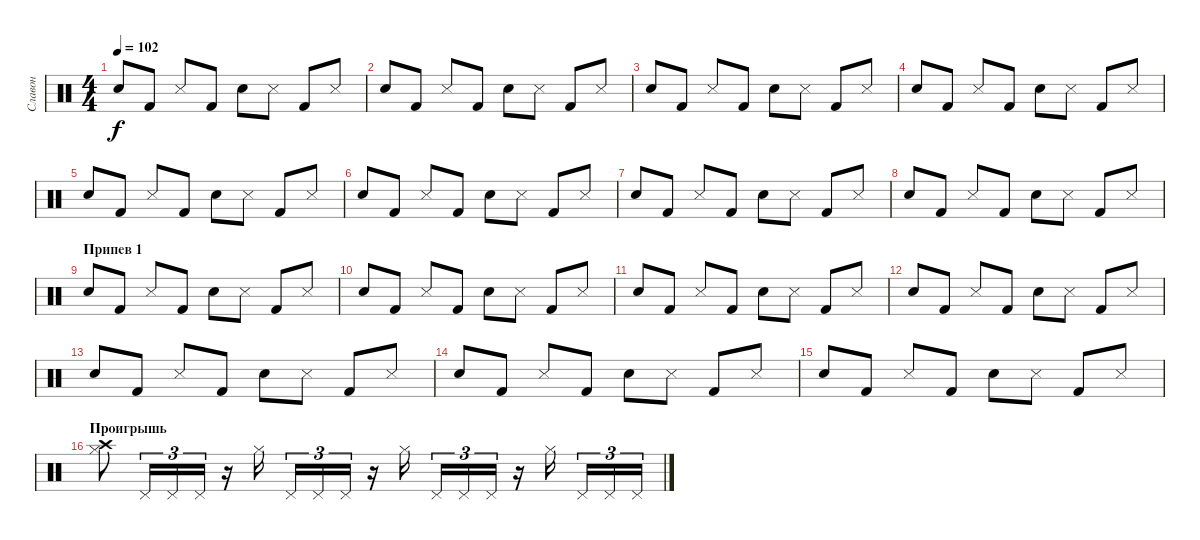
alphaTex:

\track ("Славон" "Славон") {instrument percussion}
\staff {score}
\articulation defaults
\ts (4 4)
\tempo 102
\clef neutral
\ks c "Snare (hit) 2".8{dy f} "Kick (hit) 2".8 "Snare (side stick) 3".8 "Kick (hit) 2".8 "Snare (hit) 2".8 "Snare (side stick) 3".8 "Kick (hit) 2".8 "Snare (side stick) 3".8
|
"Snare (hit) 2".8 "Kick (hit) 2".8 "Snare (side stick) 3".8 "Kick (hit) 2".8 "Snare (hit) 2".8 "Snare (side stick) 3".8 "Kick (hit) 2".8 "Snare (side stick) 3".8 |
"Snare (hit) 2".8 "Kick (hit) 2".8 "Snare (side stick) 3".8 "Kick (hit) 2".8 "Snare (hit) 2".8 "Snare (side stick) 3".8 "Kick (hit) 2".8 "Snare (side stick) 3".8 |
"Snare (hit) 2".8 "Kick (hit) 2".8 "Snare (side stick) 3".8 "Kick (hit) 2".8 "Snare (hit) 2".8 "Snare (side stick) 3".8 "Kick (hit) 2".8 "Snare (side stick) 3".8 |
"Snare (hit) 2".8 "Kick (hit) 2".8 "Snare (side stick) 3".8 "Kick (hit) 2".8 "Snare (hit) 2".8 "Snare (side stick) 3".8 "Kick (hit) 2".8 "Snare (side stick) 3".8 |
"Snare (hit) 2".8 "Kick (hit) 2".8 "Snare (side stick) 3".8 "Kick (hit) 2".8 "Snare (hit) 2".8 "Snare (side stick) 3".8 "Kick (hit) 2".8 "Snare (side stick) 3".8 |
"Snare (hit) 2".8 "Kick (hit) 2".8 "Snare (side stick) 3".8 "Kick (hit) 2".8 "Snare (hit) 2".8 "Snare (side stick) 3".8 "Kick (hit) 2".8 "Snare (side stick) 3".8 |
"Snare (hit) 2".8 "Kick (hit) 2".8 "Snare (side stick) 3".8 "Kick (hit) 2".8 "Snare (hit) 2".8 "Snare (side stick) 3".8 "Kick (hit) 2".8 "Snare (side stick) 3".8 |
\section ("" "Припев 1")
"Snare (hit) 2".8 "Kick (hit) 2".8 "Snare (side stick) 3".8 "Kick (hit) 2".8 "Snare (hit) 2".8 "Snare (side stick) 3".8 "Kick (hit) 2".8 "Snare (side stick) 3".8 |
"Snare (hit) 2".8 "Kick (hit) 2".8 "Snare (side stick) 3".8 "Kick (hit) 2".8 "Snare (hit) 2".8 "Snare (side stick) 3".8 "Kick (hit) 2".8 "Snare (side stick) 3".8 |
"Snare (hit) 2".8 "Kick (hit) 2".8 "Snare (side stick) 3".8 "Kick (hit) 2".8 "Snare (hit) 2".8 "Snare (side stick) 3".8 "Kick (hit) 2".8 "Snare (side stick) 3".8 |
"Snare (hit) 2".8 "Kick (hit) 2".8 "Snare (side stick) 3".8 "Kick (hit) 2".8 "Snare (hit) 2".8 "Snare (side stick) 3".8 "Kick (hit) 2".8 "Snare (side stick) 3".8 |
"Snare (hit) 2".8 "Kick (hit) 2".8 "Snare (side stick) 3".8 "Kick (hit) 2".8 "Snare (hit) 2".8 "Snare (side stick) 3".8 "Kick (hit) 2".8 "Snare (side stick) 3".8 |
"Snare (hit) 2".8 "Kick (hit) 2".8 "Snare (side stick) 3".8 "Kick (hit) 2".8 "Snare (hit) 2".8 "Snare (side stick) 3".8 "Kick (hit) 2".8 "Snare (side stick) 3".8 |
"Snare (hit) 2".8 "Kick (hit) 2".8 "Snare (side stick) 3".8 "Kick (hit) 2".8 "Snare (hit) 2".8 "Snare (side stick) 3".8 "Kick (hit) 2".8 "Snare (side stick) 3".8 |
\section ("" "Проигрышь")
("Hi-Hat (closed)" "Crash high (hit)").8 "Pedal Hi-Hat (hit)".16{tu (3 2)} "Pedal Hi-Hat (hit)".16{tu (3 2)} "Pedal Hi-Hat (hit)".16{tu (3 2)} r.16 "Hi-Hat (closed)".16 "Pedal Hi-Hat (hit)".16{tu (3 2)} "Pedal Hi-Hat (hit)".16{tu (3 2)} "Pedal Hi-Hat (hit)".16{tu (3 2)} r.16 "Hi-Hat (closed)".16 "Pedal Hi-Hat (hit)".16{tu (3 2)} "Pedal Hi-Hat (hit)".16{tu (3 2)} "Pedal Hi-Hat (hit)".16{tu (3 2)} r.16 "Hi-Hat (closed)".16 "Pedal Hi-Hat (hit)".16{tu (3 2)} "Pedal Hi-Hat (hit)".16{tu (3 2)} "Pedal Hi-Hat (hit)".16{tu (3 2)}
